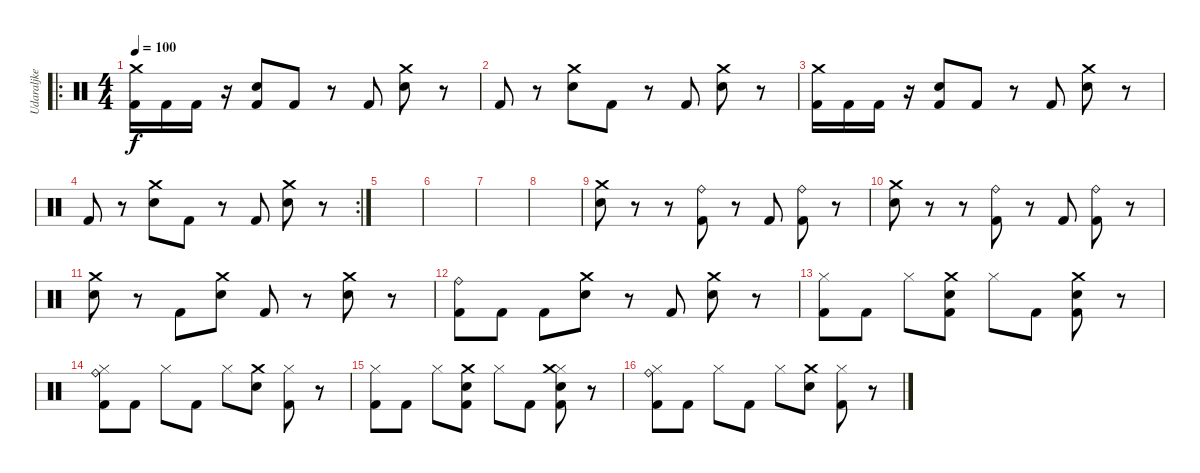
\track ("Udaraljke" "Udaraljke") {instrument percussion}
\staff {score}
\articulation defaults
\ro
\ts (4 4)
\tempo 100
\clef neutral
\ks c
("Crash medium (hit)" "Kick (hit) 2").16{dy f} "Kick (hit) 2".16 "Kick (hit) 2".16 r.16 ("Snare (hit) 2" "Kick (hit) 2").8 "Kick (hit) 2".8 r.8 "Kick (hit) 2".8 ("Crash medium (hit)" "Snare (hit) 2").8 r.8 |
"Kick (hit) 2".8 r.8 ("Crash medium (hit)" "Snare (hit) 2").8 "Kick (hit) 2".8 r.8 "Kick (hit) 2".8 ("Crash medium (hit)" "Snare (hit) 2").8 r.8 |
("Crash medium (hit)" "Kick (hit) 2").16 "Kick (hit) 2".16 "Kick (hit) 2".16 r.16 ("Snare (hit) 2" "Kick (hit) 2").8 "Kick (hit) 2".8 r.8 "Kick (hit) 2".8 ("Crash medium (hit)" "Snare (hit) 2").8 r.8 |
\rc 2 "Kick (hit) 2".8
r.8 ("Crash medium (hit)" "Snare (hit) 2").8 "Kick (hit) 2".8 r.8 "Kick (hit) 2".8 ("Crash medium (hit)" "Snare (hit) 2").8 r.8 |
|
|
|
|
("Crash medium (hit)" "Snare (hit) 2").8 r.8 r.8 ("Ride (bell)" "Kick (hit) 2").8 r.8 "Kick (hit) 2".8 ("Ride (bell)" "Kick (hit) 2").8 r.8 |
("Crash medium (hit)" "Snare (hit) 2").8 r.8 r.8 ("Ride (bell)" "Kick (hit) 2").8 r.8 "Kick (hit) 2".8 ("Ride (bell)" "Kick (hit) 2").8 r.8 |
("Snare (hit) 2" "Crash medium (hit)").8 r.8 "Kick (hit) 2".8 ("Crash medium (hit)" "Snare (hit) 2").8 "Kick (hit) 2".8 r.8 ("Snare (hit) 2" "Crash medium (hit)").8 r.8 |
("Ride (bell)" "Kick (hit) 2").8 "Kick (hit) 2".8 "Kick (hit) 2".8 ("Crash medium (hit)" "Snare (hit) 2").8 r.8 "Kick (hit) 2".8 ("Crash medium (hit)" "Snare (hit) 2").8 r.8 |
("Hi-Hat (closed)" "Kick (hit) 2").8 "Kick (hit) 2".8 "Hi-Hat (closed)".8 ("Crash medium (hit)" "Snare (hit) 2" "Kick (hit) 2").8 "Hi-Hat (closed)".8 "Kick (hit) 2".8 ("Crash medium (hit)" "Snare (hit) 2" "Kick (hit) 2").8 r.8 |
("Hi-Hat (closed)" "Ride (bell)" "Kick (hit) 2").8 "Kick (hit) 2".8 "Hi-Hat (closed)".8 "Kick (hit) 2".8 "Hi-Hat (closed)".8 ("Crash medium (hit)" "Snare (hit) 2").8 ("Hi-Hat (closed)" "Kick (hit) 2").8 r.8 |
("Hi-Hat (closed)" "Kick (hit) 2").8 "Kick (hit) 2".8 "Hi-Hat (closed)".8 ("Crash medium (hit)" "Snare (hit) 2" "Kick (hit) 2").8 "Hi-Hat (closed)".8 "Kick (hit) 2".8 ("Hi-Hat (closed)" "Crash medium (hit)" "Snare (hit) 2" "Kick (hit) 2").8 r.8 |
("Hi-Hat (closed)" "Ride (bell)" "Kick (hit) 2").8 "Kick (hit) 2".8 "Hi-Hat (closed)".8 "Kick (hit) 2".8 "Hi-Hat (closed)".8 ("Crash medium (hit)" "Snare (hit) 2").8 ("Hi-Hat (closed)" "Kick (hit) 2").8 r.8
